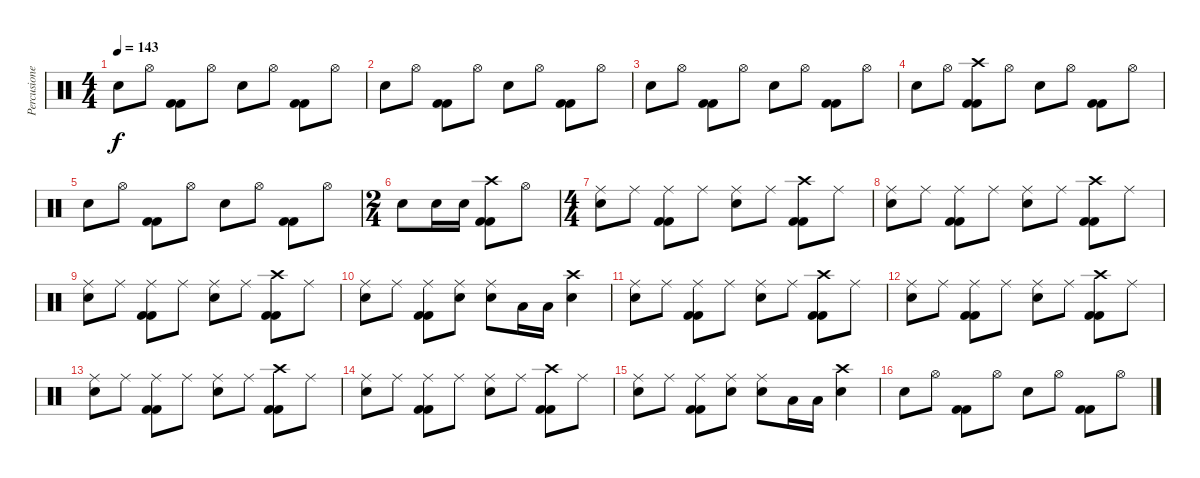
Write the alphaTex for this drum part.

\track ("Percusiones" "Percusione") {instrument percussion}
\staff {score}
\articulation defaults
\ts (4 4)
\tempo 143
\clef neutral
\ks c "Snare (hit) 2".8{dy f} "Hi-Hat (open)".8
("Kick (hit) 2" "Kick (hit) 2").8 "Hi-Hat (open)".8 "Snare (hit) 2".8 "Hi-Hat (open)".8 ("Kick (hit) 2" "Kick (hit) 2").8 "Hi-Hat (open)".8 |
"Snare (hit) 2".8 "Hi-Hat (open)".8 ("Kick (hit) 2" "Kick (hit) 2").8 "Hi-Hat (open)".8 "Snare (hit) 2".8 "Hi-Hat (open)".8 ("Kick (hit) 2" "Kick (hit) 2").8 "Hi-Hat (open)".8 |
"Snare (hit) 2".8 "Hi-Hat (open)".8 ("Kick (hit) 2" "Kick (hit) 2").8 "Hi-Hat (open)".8 "Snare (hit) 2".8 "Hi-Hat (open)".8 ("Kick (hit) 2" "Kick (hit) 2").8 "Hi-Hat (open)".8 |
"Snare (hit) 2".8 "Hi-Hat (open)".8 ("Kick (hit) 2" "Kick (hit) 2" "Crash high (hit)").8 "Hi-Hat (open)".8 "Snare (hit) 2".8 "Hi-Hat (open)".8 ("Kick (hit) 2" "Kick (hit) 2").8 "Hi-Hat (open)".8 |
"Snare (hit) 2".8 "Hi-Hat (open)".8 ("Kick (hit) 2" "Kick (hit) 2").8 "Hi-Hat (open)".8 "Snare (hit) 2".8 "Hi-Hat (open)".8 ("Kick (hit) 2" "Kick (hit) 2").8 "Hi-Hat (open)".8 |
\ts (2 4)
"Snare (hit) 2".8 "Snare (hit) 2".16 "Snare (hit) 2".16 ("Crash high (hit)" "Kick (hit) 2" "Kick (hit) 2").8 "Hi-Hat (open)".8 |
\ts (4 4)
("Ride (middle)" "Snare (hit) 2").8 "Ride (middle)".8 ("Ride (middle)" "Kick (hit) 2" "Kick (hit) 2").8 "Ride (middle)".8 ("Ride (middle)" "Snare (hit) 2").8 "Ride (middle)".8 ("Kick (hit) 2" "Kick (hit) 2" "Crash high (hit)").8 "Ride (middle)".8 |
("Ride (middle)" "Snare (hit) 2").8 "Ride (middle)".8 ("Ride (middle)" "Kick (hit) 2" "Kick (hit) 2").8 "Ride (middle)".8 ("Ride (middle)" "Snare (hit) 2").8 "Ride (middle)".8 ("Kick (hit) 2" "Kick (hit) 2" "Crash high (hit)").8 "Ride (middle)".8 |
("Ride (middle)" "Snare (hit) 2").8 "Ride (middle)".8 ("Ride (middle)" "Kick (hit) 2" "Kick (hit) 2").8 "Ride (middle)".8 ("Ride (middle)" "Snare (hit) 2").8 "Ride (middle)".8 ("Kick (hit) 2" "Kick (hit) 2" "Crash high (hit)").8 "Ride (middle)".8 |
("Ride (middle)" "Snare (hit) 2").8 "Ride (middle)".8 ("Ride (middle)" "Kick (hit) 2" "Kick (hit) 2").8 ("Ride (middle)" "Snare (hit) 2").8 ("Ride (middle)" "Snare (hit) 2").8 "Low Tom (hit)".16 "Low Tom (hit)".16 ("Snare (hit) 2" "Crash high (hit)").4 |
("Ride (middle)" "Snare (hit) 2").8 "Ride (middle)".8 ("Ride (middle)" "Kick (hit) 2" "Kick (hit) 2").8 "Ride (middle)".8 ("Ride (middle)" "Snare (hit) 2").8 "Ride (middle)".8 ("Kick (hit) 2" "Kick (hit) 2" "Crash high (hit)").8 "Ride (middle)".8 |
("Ride (middle)" "Snare (hit) 2").8 "Ride (middle)".8 ("Ride (middle)" "Kick (hit) 2" "Kick (hit) 2").8 "Ride (middle)".8 ("Ride (middle)" "Snare (hit) 2").8 "Ride (middle)".8 ("Kick (hit) 2" "Kick (hit) 2" "Crash high (hit)").8 "Ride (middle)".8 |
("Ride (middle)" "Snare (hit) 2").8 "Ride (middle)".8 ("Ride (middle)" "Kick (hit) 2" "Kick (hit) 2").8 "Ride (middle)".8 ("Ride (middle)" "Snare (hit) 2").8 "Ride (middle)".8 ("Kick (hit) 2" "Kick (hit) 2" "Crash high (hit)").8 "Ride (middle)".8 |
("Ride (middle)" "Snare (hit) 2").8 "Ride (middle)".8 ("Ride (middle)" "Kick (hit) 2" "Kick (hit) 2").8 "Ride (middle)".8 ("Ride (middle)" "Snare (hit) 2").8 "Ride (middle)".8 ("Kick (hit) 2" "Kick (hit) 2" "Crash high (hit)").8 "Ride (middle)".8 |
("Ride (middle)" "Snare (hit) 2").8 "Ride (middle)".8 ("Ride (middle)" "Kick (hit) 2" "Kick (hit) 2").8 ("Ride (middle)" "Snare (hit) 2").8 ("Ride (middle)" "Snare (hit) 2").8 "Low Tom (hit)".16 "Low Tom (hit)".16 ("Snare (hit) 2" "Crash high (hit)").4 |
"Snare (hit) 2".8 "Hi-Hat (open)".8 ("Kick (hit) 2" "Kick (hit) 2").8 "Hi-Hat (open)".8 "Snare (hit) 2".8 "Hi-Hat (open)".8 ("Kick (hit) 2" "Kick (hit) 2").8 "Hi-Hat (open)".8
